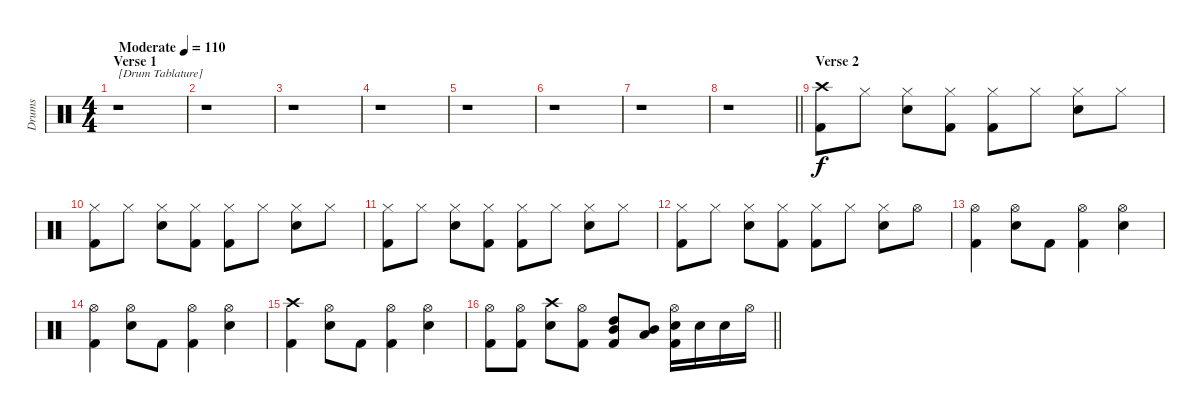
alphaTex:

\track ("Drums" "Drums") {instrument percussion bank 10}
\staff {score}
\articulation defaults
\ts (4 4)
\section ("" "Verse 1")
\tempo (110 "Moderate")
\clef neutral
\ks c
r.1{txt "[Drum Tablature]" dy f} |
r.1 |
r.1 |
r.1 |
r.1 |
r.1 |
r.1 |
\barLineRight lightlight
r.1 |
\section ("" "Verse 2")
("Kick (hit) 2" "Crash high (hit)").8 "Hi-Hat (closed)".8 ("Hi-Hat (closed)" "Snare (hit) 2").8 ("Hi-Hat (closed)" "Kick (hit) 2").8 ("Hi-Hat (closed)" "Kick (hit) 2").8 "Hi-Hat (closed)".8 ("Hi-Hat (closed)" "Snare (hit) 2").8 "Hi-Hat (closed)".8 |
("Kick (hit) 2" "Hi-Hat (closed)").8 "Hi-Hat (closed)".8 ("Hi-Hat (closed)" "Snare (hit) 2").8 ("Hi-Hat (closed)" "Kick (hit) 2").8 ("Hi-Hat (closed)" "Kick (hit) 2").8 "Hi-Hat (closed)".8 ("Hi-Hat (closed)" "Snare (hit) 2").8 "Hi-Hat (closed)".8 |
("Kick (hit) 2" "Hi-Hat (closed)").8 "Hi-Hat (closed)".8 ("Hi-Hat (closed)" "Snare (hit) 2").8 ("Hi-Hat (closed)" "Kick (hit) 2").8 ("Hi-Hat (closed)" "Kick (hit) 2").8 "Hi-Hat (closed)".8 ("Hi-Hat (closed)" "Snare (hit) 2").8 "Hi-Hat (closed)".8 |
("Kick (hit) 2" "Hi-Hat (closed)").8 "Hi-Hat (closed)".8 ("Hi-Hat (closed)" "Snare (hit) 2").8 ("Hi-Hat (closed)" "Kick (hit) 2").8 ("Hi-Hat (closed)" "Kick (hit) 2").8 "Hi-Hat (closed)".8 ("Hi-Hat (closed)" "Snare (hit) 2").8 "Hi-Hat (open)".8 |
("Hi-Hat (open)" "Kick (hit) 2").4 ("Hi-Hat (open)" "Snare (hit) 2").8 "Kick (hit) 2".8 ("Hi-Hat (open)" "Kick (hit) 2").4 ("Hi-Hat (open)" "Snare (hit) 2").4 |
("Hi-Hat (open)" "Kick (hit) 2").4 ("Hi-Hat (open)" "Snare (hit) 2").8 "Kick (hit) 2".8 ("Hi-Hat (open)" "Kick (hit) 2").4 ("Hi-Hat (open)" "Snare (hit) 2").4 |
("Crash high (hit)" "Kick (hit) 2").4 ("Hi-Hat (open)" "Snare (hit) 2").8 "Kick (hit) 2".8 ("Hi-Hat (open)" "Kick (hit) 2").4 ("Hi-Hat (open)" "Snare (hit) 2").4 |
\barLineRight lightlight
("Kick (hit) 2" "Hi-Hat (open)").8 ("Kick (hit) 2" "Hi-Hat (open)").8 ("Crash high (hit)" "Snare (hit) 2").8 ("Hi-Hat (open)" "Kick (hit) 2").8 ("High Tom (hit)" "Mid Tom (hit)" "Kick (hit) 2").8 ("Mid Tom (hit)" "Low Tom (hit)").8 ("Kick (hit) 2" "Snare (hit) 2" "Hi-Hat (open)").16 "Snare (hit) 2".16 "Snare (hit) 2".16 "Hi-Hat (open)".16
